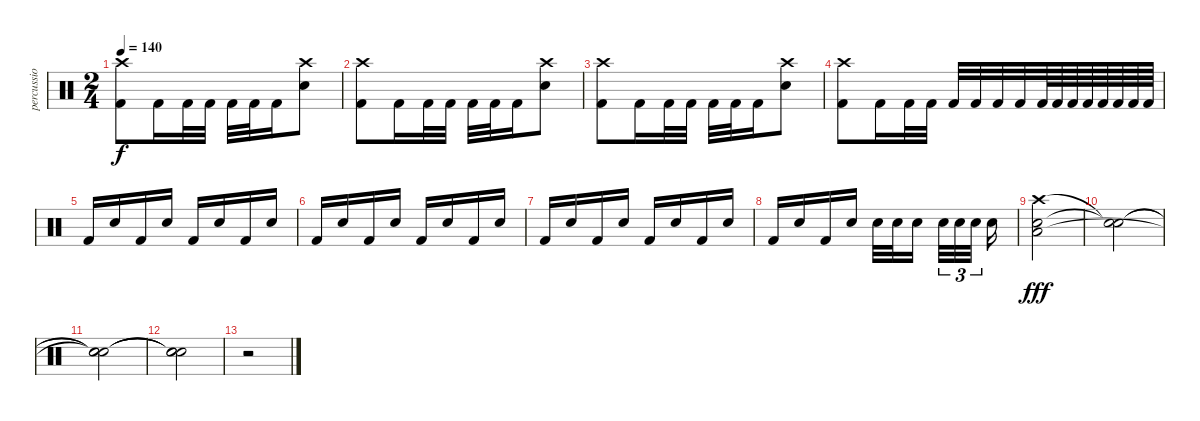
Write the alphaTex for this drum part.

\track (" percussion 1" " percussio") {instrument percussion}
\staff {score}
\articulation defaults
\ts (2 4)
\tempo 140
\clef neutral
\ks c
("Crash high (hit)" "Kick (hit) 2").8{dy f} "Kick (hit) 2".16 "Kick (hit) 2".32 "Kick (hit) 2".32 "Kick (hit) 2".32 "Kick (hit) 2".32 "Kick (hit) 2".16 ("Crash high (hit)" "Snare (hit) 2").8 |
("Crash high (hit)" "Kick (hit) 2").8 "Kick (hit) 2".16 "Kick (hit) 2".32 "Kick (hit) 2".32 "Kick (hit) 2".32 "Kick (hit) 2".32 "Kick (hit) 2".16 ("Crash high (hit)" "Snare (hit) 2").8 |
("Crash high (hit)" "Kick (hit) 2").8 "Kick (hit) 2".16 "Kick (hit) 2".32 "Kick (hit) 2".32 "Kick (hit) 2".32 "Kick (hit) 2".32 "Kick (hit) 2".16 ("Crash high (hit)" "Snare (hit) 2").8 |
("Crash high (hit)" "Kick (hit) 2").8 "Kick (hit) 2".16 "Kick (hit) 2".32 "Kick (hit) 2".32 "Kick (hit) 2".32 "Kick (hit) 2".32 "Kick (hit) 2".32 "Kick (hit) 2".32 "Kick (hit) 2".64 "Kick (hit) 2".64 "Kick (hit) 2".64 "Kick (hit) 2".64 "Kick (hit) 2".64 "Kick (hit) 2".64 "Kick (hit) 2".64 "Kick (hit) 2".64 |
"Kick (hit) 2".16 "Snare (hit) 2".16 "Kick (hit) 2".16 "Snare (hit) 2".16 "Kick (hit) 2".16 "Snare (hit) 2".16 "Kick (hit) 2".16 "Snare (hit) 2".16 |
"Kick (hit) 2".16 "Snare (hit) 2".16 "Kick (hit) 2".16 "Snare (hit) 2".16 "Kick (hit) 2".16 "Snare (hit) 2".16 "Kick (hit) 2".16 "Snare (hit) 2".16 |
"Kick (hit) 2".16 "Snare (hit) 2".16 "Kick (hit) 2".16 "Snare (hit) 2".16 "Kick (hit) 2".16 "Snare (hit) 2".16 "Kick (hit) 2".16 "Snare (hit) 2".16 |
"Kick (hit) 2".16 "Snare (hit) 2".16 "Kick (hit) 2".16 "Snare (hit) 2".16 "Snare (hit) 2".32 "Snare (hit) 2".32 "Snare (hit) 2".16 "Snare (hit) 2".32{tu (3 2)} "Snare (hit) 2".32{tu (3 2)} "Snare (hit) 2".32{tu (3 2)} "Snare (hit) 2".16 |
("Snare (hit) 2" "Crash high (hit)" "Low Tom (hit)").2{dy fff} |
("Snare (hit)"{t} "Snare (hit)"{t}).2 |
("Snare (hit)"{t} "Snare (hit)"{t} "Snare (hit)"{t}).2 |
("Snare (hit)"{t} "Snare (hit)"{t} "Snare (hit)"{t}).2 |
r.2
